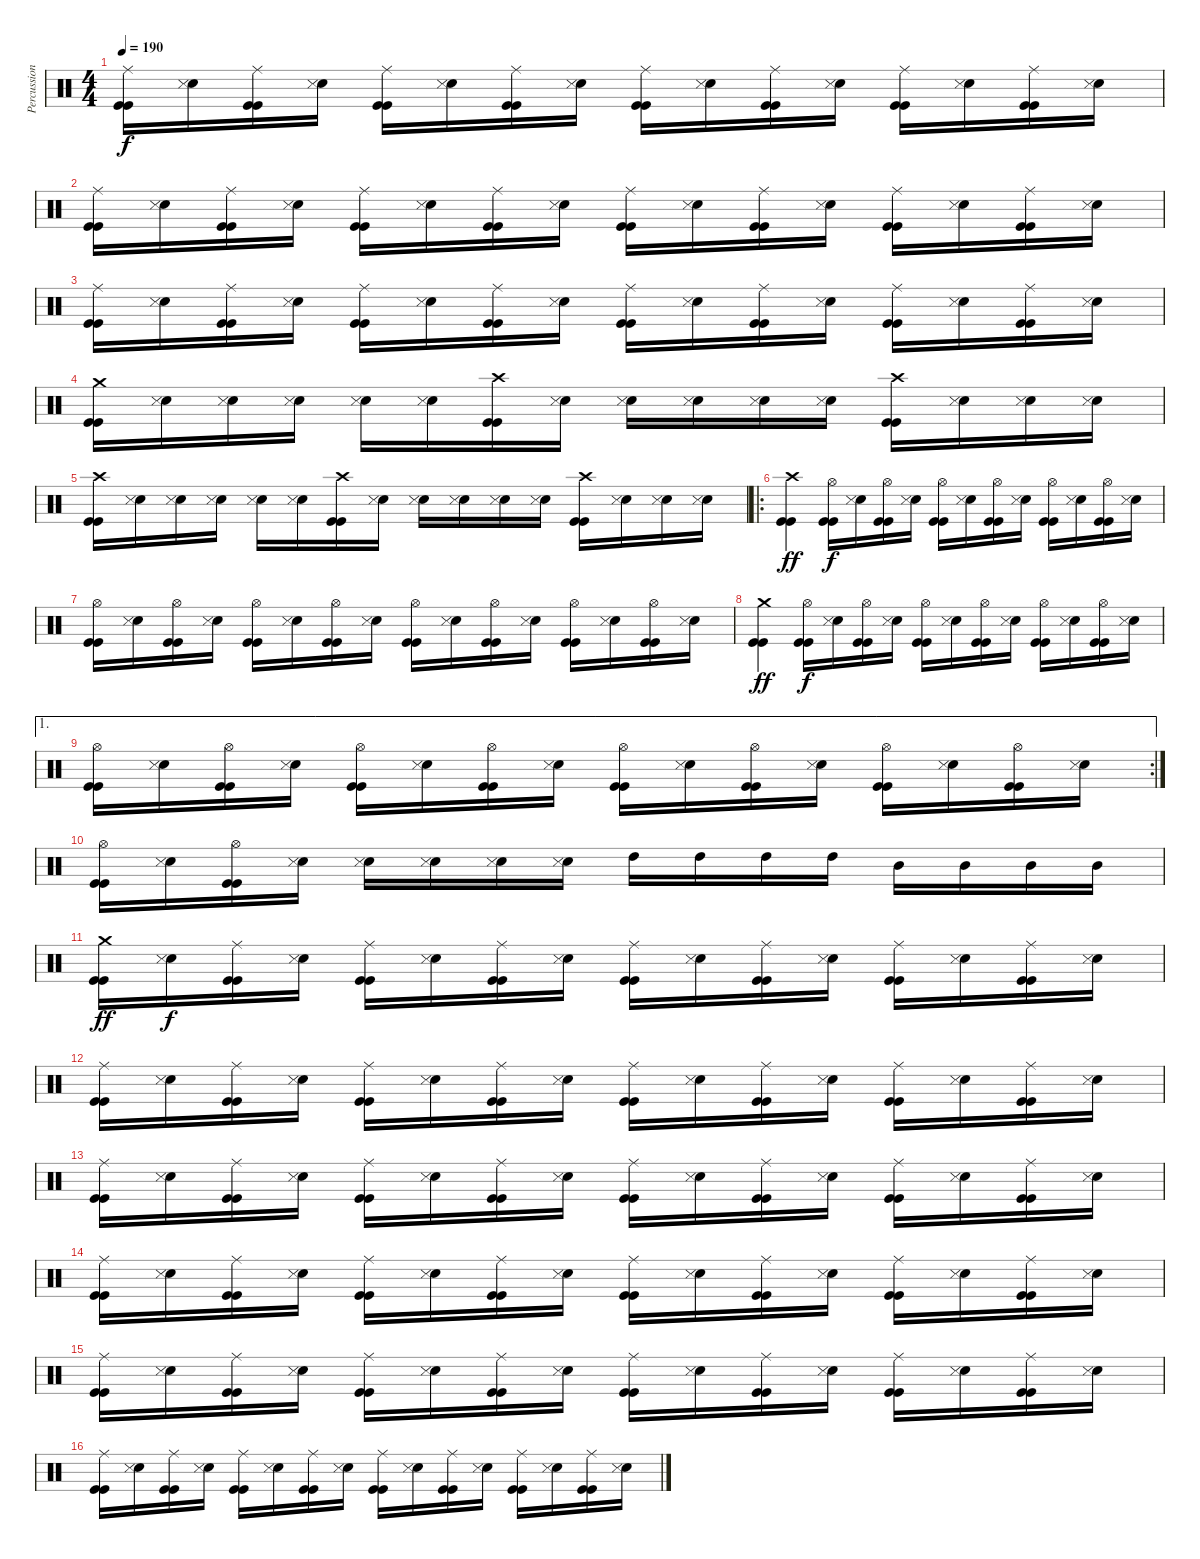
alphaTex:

\track ("Percussion" "Percussion") {instrument percussion}
\staff {score}
\articulation defaults
\ts (4 4)
\tempo 190
\clef neutral
\ks c
("Ride (middle)" "Kick (hit)" "Kick (hit)").16{dy f} ("Snare (hit) 2" "Snare (side stick) 3").16 ("Ride (middle)" "Kick (hit)" "Kick (hit)").16 ("Snare (hit) 2" "Snare (side stick) 3").16 ("Ride (middle)" "Kick (hit)" "Kick (hit)").16 ("Snare (hit) 2" "Snare (side stick) 3").16 ("Ride (middle)" "Kick (hit)" "Kick (hit)").16 ("Snare (hit) 2" "Snare (side stick) 3").16 ("Ride (middle)" "Kick (hit)" "Kick (hit)").16 ("Snare (hit) 2" "Snare (side stick) 3").16 ("Ride (middle)" "Kick (hit)" "Kick (hit)").16 ("Snare (hit) 2" "Snare (side stick) 3").16 ("Ride (middle)" "Kick (hit)" "Kick (hit)").16 ("Snare (hit) 2" "Snare (side stick) 3").16 ("Ride (middle)" "Kick (hit)" "Kick (hit)").16 ("Snare (hit) 2" "Snare (side stick) 3").16 |
("Ride (middle)" "Kick (hit)" "Kick (hit)").16 ("Snare (hit) 2" "Snare (side stick) 3").16 ("Ride (middle)" "Kick (hit)" "Kick (hit)").16 ("Snare (hit) 2" "Snare (side stick) 3").16 ("Ride (middle)" "Kick (hit)" "Kick (hit)").16 ("Snare (hit) 2" "Snare (side stick) 3").16 ("Ride (middle)" "Kick (hit)" "Kick (hit)").16 ("Snare (hit) 2" "Snare (side stick) 3").16 ("Ride (middle)" "Kick (hit)" "Kick (hit)").16 ("Snare (hit) 2" "Snare (side stick) 3").16 ("Ride (middle)" "Kick (hit)" "Kick (hit)").16 ("Snare (hit) 2" "Snare (side stick) 3").16 ("Ride (middle)" "Kick (hit)" "Kick (hit)").16 ("Snare (hit) 2" "Snare (side stick) 3").16 ("Ride (middle)" "Kick (hit)" "Kick (hit)").16 ("Snare (hit) 2" "Snare (side stick) 3").16 |
("Ride (middle)" "Kick (hit)" "Kick (hit)").16 ("Snare (hit) 2" "Snare (side stick) 3").16 ("Ride (middle)" "Kick (hit)" "Kick (hit)").16 ("Snare (hit) 2" "Snare (side stick) 3").16 ("Ride (middle)" "Kick (hit)" "Kick (hit)").16 ("Snare (hit) 2" "Snare (side stick) 3").16 ("Ride (middle)" "Kick (hit)" "Kick (hit)").16 ("Snare (hit) 2" "Snare (side stick) 3").16 ("Ride (middle)" "Kick (hit)" "Kick (hit)").16 ("Snare (hit) 2" "Snare (side stick) 3").16 ("Ride (middle)" "Kick (hit)" "Kick (hit)").16 ("Snare (hit) 2" "Snare (side stick) 3").16 ("Ride (middle)" "Kick (hit)" "Kick (hit)").16 ("Snare (hit) 2" "Snare (side stick) 3").16 ("Ride (middle)" "Kick (hit)" "Kick (hit)").16 ("Snare (hit) 2" "Snare (side stick) 3").16 |
("Crash medium (hit)" "Kick (hit)" "Kick (hit)").16 ("Snare (hit) 2" "Snare (side stick) 3").16 ("Snare (hit) 2" "Snare (side stick) 3").16 ("Snare (hit) 2" "Snare (side stick) 3").16 ("Snare (hit) 2" "Snare (side stick) 3").16 ("Snare (hit) 2" "Snare (side stick) 3").16 ("Crash high (hit)" "Kick (hit)" "Kick (hit)").16 ("Snare (hit) 2" "Snare (side stick) 3").16 ("Snare (hit) 2" "Snare (side stick) 3").16 ("Snare (hit) 2" "Snare (side stick) 3").16 ("Snare (hit) 2" "Snare (side stick) 3").16 ("Snare (hit) 2" "Snare (side stick) 3").16 ("Crash high (hit)" "Kick (hit)" "Kick (hit)").16 ("Snare (hit) 2" "Snare (side stick) 3").16 ("Snare (hit) 2" "Snare (side stick) 3").16 ("Snare (hit) 2" "Snare (side stick) 3").16 |
("Crash high (hit)" "Kick (hit)" "Kick (hit)").16 ("Snare (hit) 2" "Snare (side stick) 3").16 ("Snare (hit) 2" "Snare (side stick) 3").16 ("Snare (hit) 2" "Snare (side stick) 3").16 ("Snare (hit) 2" "Snare (side stick) 3").16 ("Snare (hit) 2" "Snare (side stick) 3").16 ("Crash high (hit)" "Kick (hit)" "Kick (hit)").16 ("Snare (hit) 2" "Snare (side stick) 3").16 ("Snare (hit) 2" "Snare (side stick) 3").16 ("Snare (hit) 2" "Snare (side stick) 3").16 ("Snare (hit) 2" "Snare (side stick) 3").16 ("Snare (hit) 2" "Snare (side stick) 3").16 ("Crash high (hit)" "Kick (hit)" "Kick (hit)").16 ("Snare (hit) 2" "Snare (side stick) 3").16 ("Snare (hit) 2" "Snare (side stick) 3").16 ("Snare (hit) 2" "Snare (side stick) 3").16 |
\ro
("Crash high (hit)" "Kick (hit)" "Kick (hit)").4{dy ff} ("Hi-Hat (open)" "Kick (hit)" "Kick (hit)").16{dy f} ("Snare (hit) 2" "Snare (side stick) 3").16 ("Hi-Hat (open)" "Kick (hit)" "Kick (hit)").16 ("Snare (hit) 2" "Snare (side stick) 3").16 ("Hi-Hat (open)" "Kick (hit)" "Kick (hit)").16 ("Snare (hit) 2" "Snare (side stick) 3").16 ("Hi-Hat (open)" "Kick (hit)" "Kick (hit)").16 ("Snare (hit) 2" "Snare (side stick) 3").16 ("Hi-Hat (open)" "Kick (hit)" "Kick (hit)").16 ("Snare (hit) 2" "Snare (side stick) 3").16 ("Hi-Hat (open)" "Kick (hit)" "Kick (hit)").16 ("Snare (hit) 2" "Snare (side stick) 3").16 |
("Hi-Hat (open)" "Kick (hit)" "Kick (hit)").16 ("Snare (hit) 2" "Snare (side stick) 3").16 ("Hi-Hat (open)" "Kick (hit)" "Kick (hit)").16 ("Snare (hit) 2" "Snare (side stick) 3").16 ("Hi-Hat (open)" "Kick (hit)" "Kick (hit)").16 ("Snare (hit) 2" "Snare (side stick) 3").16 ("Hi-Hat (open)" "Kick (hit)" "Kick (hit)").16 ("Snare (hit) 2" "Snare (side stick) 3").16 ("Hi-Hat (open)" "Kick (hit)" "Kick (hit)").16 ("Snare (hit) 2" "Snare (side stick) 3").16 ("Hi-Hat (open)" "Kick (hit)" "Kick (hit)").16 ("Snare (hit) 2" "Snare (side stick) 3").16 ("Hi-Hat (open)" "Kick (hit)" "Kick (hit)").16 ("Snare (hit) 2" "Snare (side stick) 3").16 ("Hi-Hat (open)" "Kick (hit)" "Kick (hit)").16 ("Snare (hit) 2" "Snare (side stick) 3").16 |
("Crash medium (hit)" "Kick (hit)" "Kick (hit)").4{dy ff} ("Hi-Hat (open)" "Kick (hit)" "Kick (hit)").16{dy f} ("Snare (hit) 2" "Snare (side stick) 3").16 ("Hi-Hat (open)" "Kick (hit)" "Kick (hit)").16 ("Snare (hit) 2" "Snare (side stick) 3").16 ("Hi-Hat (open)" "Kick (hit)" "Kick (hit)").16 ("Snare (hit) 2" "Snare (side stick) 3").16 ("Hi-Hat (open)" "Kick (hit)" "Kick (hit)").16 ("Snare (hit) 2" "Snare (side stick) 3").16 ("Hi-Hat (open)" "Kick (hit)" "Kick (hit)").16 ("Snare (hit) 2" "Snare (side stick) 3").16 ("Hi-Hat (open)" "Kick (hit)" "Kick (hit)").16 ("Snare (hit) 2" "Snare (side stick) 3").16 |
\ae 1
\rc 2
("Hi-Hat (open)" "Kick (hit)" "Kick (hit)").16 ("Snare (hit) 2" "Snare (side stick) 3").16 ("Hi-Hat (open)" "Kick (hit)" "Kick (hit)").16 ("Snare (hit) 2" "Snare (side stick) 3").16 ("Hi-Hat (open)" "Kick (hit)" "Kick (hit)").16 ("Snare (hit) 2" "Snare (side stick) 3").16 ("Hi-Hat (open)" "Kick (hit)" "Kick (hit)").16 ("Snare (hit) 2" "Snare (side stick) 3").16 ("Hi-Hat (open)" "Kick (hit)" "Kick (hit)").16 ("Snare (hit) 2" "Snare (side stick) 3").16 ("Hi-Hat (open)" "Kick (hit)" "Kick (hit)").16 ("Snare (hit) 2" "Snare (side stick) 3").16 ("Hi-Hat (open)" "Kick (hit)" "Kick (hit)").16 ("Snare (hit) 2" "Snare (side stick) 3").16 ("Hi-Hat (open)" "Kick (hit)" "Kick (hit)").16 ("Snare (hit) 2" "Snare (side stick) 3").16 |
("Hi-Hat (open)" "Kick (hit)" "Kick (hit)").16 ("Snare (hit) 2" "Snare (side stick) 3").16 ("Hi-Hat (open)" "Kick (hit)" "Kick (hit)").16 ("Snare (hit) 2" "Snare (side stick) 3").16 ("Snare (hit) 2" "Snare (side stick) 3").16 ("Snare (hit) 2" "Snare (side stick) 3").16 ("Snare (hit) 2" "Snare (side stick) 3").16 ("Snare (hit) 2" "Snare (side stick) 3").16 "High Tom (hit)".16 "High Tom (hit)".16 "High Tom (hit)".16 "High Tom (hit)".16 "Mid Tom (hit)".16 "Mid Tom (hit)".16 "Mid Tom (hit)".16 "Mid Tom (hit)".16 |
("Crash medium (hit)" "Kick (hit)" "Kick (hit)").16{dy ff} ("Snare (hit) 2" "Snare (side stick) 3").16{dy f} ("Ride (middle)" "Kick (hit)" "Kick (hit)").16 ("Snare (hit) 2" "Snare (side stick) 3").16 ("Ride (middle)" "Kick (hit)" "Kick (hit)").16 ("Snare (hit) 2" "Snare (side stick) 3").16 ("Ride (middle)" "Kick (hit)" "Kick (hit)").16 ("Snare (hit) 2" "Snare (side stick) 3").16 ("Ride (middle)" "Kick (hit)" "Kick (hit)").16 ("Snare (hit) 2" "Snare (side stick) 3").16 ("Ride (middle)" "Kick (hit)" "Kick (hit)").16 ("Snare (hit) 2" "Snare (side stick) 3").16 ("Ride (middle)" "Kick (hit)" "Kick (hit)").16 ("Snare (hit) 2" "Snare (side stick) 3").16 ("Ride (middle)" "Kick (hit)" "Kick (hit)").16 ("Snare (hit) 2" "Snare (side stick) 3").16 |
("Ride (middle)" "Kick (hit)" "Kick (hit)").16 ("Snare (hit) 2" "Snare (side stick) 3").16 ("Ride (middle)" "Kick (hit)" "Kick (hit)").16 ("Snare (hit) 2" "Snare (side stick) 3").16 ("Ride (middle)" "Kick (hit)" "Kick (hit)").16 ("Snare (hit) 2" "Snare (side stick) 3").16 ("Ride (middle)" "Kick (hit)" "Kick (hit)").16 ("Snare (hit) 2" "Snare (side stick) 3").16 ("Ride (middle)" "Kick (hit)" "Kick (hit)").16 ("Snare (hit) 2" "Snare (side stick) 3").16 ("Ride (middle)" "Kick (hit)" "Kick (hit)").16 ("Snare (hit) 2" "Snare (side stick) 3").16 ("Ride (middle)" "Kick (hit)" "Kick (hit)").16 ("Snare (hit) 2" "Snare (side stick) 3").16 ("Ride (middle)" "Kick (hit)" "Kick (hit)").16 ("Snare (hit) 2" "Snare (side stick) 3").16 |
("Ride (middle)" "Kick (hit)" "Kick (hit)").16 ("Snare (hit) 2" "Snare (side stick) 3").16 ("Ride (middle)" "Kick (hit)" "Kick (hit)").16 ("Snare (hit) 2" "Snare (side stick) 3").16 ("Ride (middle)" "Kick (hit)" "Kick (hit)").16 ("Snare (hit) 2" "Snare (side stick) 3").16 ("Ride (middle)" "Kick (hit)" "Kick (hit)").16 ("Snare (hit) 2" "Snare (side stick) 3").16 ("Ride (middle)" "Kick (hit)" "Kick (hit)").16 ("Snare (hit) 2" "Snare (side stick) 3").16 ("Ride (middle)" "Kick (hit)" "Kick (hit)").16 ("Snare (hit) 2" "Snare (side stick) 3").16 ("Ride (middle)" "Kick (hit)" "Kick (hit)").16 ("Snare (hit) 2" "Snare (side stick) 3").16 ("Ride (middle)" "Kick (hit)" "Kick (hit)").16 ("Snare (hit) 2" "Snare (side stick) 3").16 |
("Ride (middle)" "Kick (hit)" "Kick (hit)").16 ("Snare (hit) 2" "Snare (side stick) 3").16 ("Ride (middle)" "Kick (hit)" "Kick (hit)").16 ("Snare (hit) 2" "Snare (side stick) 3").16 ("Ride (middle)" "Kick (hit)" "Kick (hit)").16 ("Snare (hit) 2" "Snare (side stick) 3").16 ("Ride (middle)" "Kick (hit)" "Kick (hit)").16 ("Snare (hit) 2" "Snare (side stick) 3").16 ("Ride (middle)" "Kick (hit)" "Kick (hit)").16 ("Snare (hit) 2" "Snare (side stick) 3").16 ("Ride (middle)" "Kick (hit)" "Kick (hit)").16 ("Snare (hit) 2" "Snare (side stick) 3").16 ("Ride (middle)" "Kick (hit)" "Kick (hit)").16 ("Snare (hit) 2" "Snare (side stick) 3").16 ("Ride (middle)" "Kick (hit)" "Kick (hit)").16 ("Snare (hit) 2" "Snare (side stick) 3").16 |
("Ride (middle)" "Kick (hit)" "Kick (hit)").16 ("Snare (hit) 2" "Snare (side stick) 3").16 ("Ride (middle)" "Kick (hit)" "Kick (hit)").16 ("Snare (hit) 2" "Snare (side stick) 3").16 ("Ride (middle)" "Kick (hit)" "Kick (hit)").16 ("Snare (hit) 2" "Snare (side stick) 3").16 ("Ride (middle)" "Kick (hit)" "Kick (hit)").16 ("Snare (hit) 2" "Snare (side stick) 3").16 ("Ride (middle)" "Kick (hit)" "Kick (hit)").16 ("Snare (hit) 2" "Snare (side stick) 3").16 ("Ride (middle)" "Kick (hit)" "Kick (hit)").16 ("Snare (hit) 2" "Snare (side stick) 3").16 ("Ride (middle)" "Kick (hit)" "Kick (hit)").16 ("Snare (hit) 2" "Snare (side stick) 3").16 ("Ride (middle)" "Kick (hit)" "Kick (hit)").16 ("Snare (hit) 2" "Snare (side stick) 3").16 |
("Ride (middle)" "Kick (hit)" "Kick (hit)").16 ("Snare (hit) 2" "Snare (side stick) 3").16 ("Ride (middle)" "Kick (hit)" "Kick (hit)").16 ("Snare (hit) 2" "Snare (side stick) 3").16 ("Ride (middle)" "Kick (hit)" "Kick (hit)").16 ("Snare (hit) 2" "Snare (side stick) 3").16 ("Ride (middle)" "Kick (hit)" "Kick (hit)").16 ("Snare (hit) 2" "Snare (side stick) 3").16 ("Ride (middle)" "Kick (hit)" "Kick (hit)").16 ("Snare (hit) 2" "Snare (side stick) 3").16 ("Ride (middle)" "Kick (hit)" "Kick (hit)").16 ("Snare (hit) 2" "Snare (side stick) 3").16 ("Ride (middle)" "Kick (hit)" "Kick (hit)").16 ("Snare (hit) 2" "Snare (side stick) 3").16 ("Ride (middle)" "Kick (hit)" "Kick (hit)").16 ("Snare (hit) 2" "Snare (side stick) 3").16
